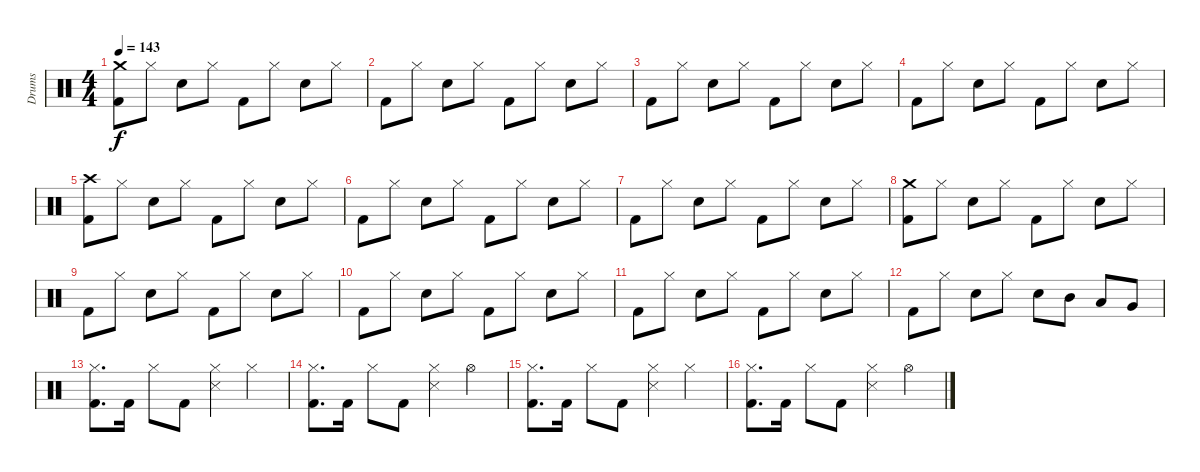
\track ("Drums" "Drums") {instrument percussion}
\staff {score}
\articulation defaults
\ts (4 4)
\tempo 143
\clef neutral
\ks c
("Crash medium (hit)" "Kick (hit) 2").8{dy f} "Hi-Hat (closed)".8 "Snare (hit) 2".8 "Hi-Hat (closed)".8 "Kick (hit) 2".8 "Hi-Hat (closed)".8 "Snare (hit) 2".8 "Hi-Hat (closed)".8 |
"Kick (hit) 2".8 "Hi-Hat (closed)".8 "Snare (hit) 2".8 "Hi-Hat (closed)".8 "Kick (hit) 2".8 "Hi-Hat (closed)".8 "Snare (hit) 2".8 "Hi-Hat (closed)".8 |
"Kick (hit) 2".8 "Hi-Hat (closed)".8 "Snare (hit) 2".8 "Hi-Hat (closed)".8 "Kick (hit) 2".8 "Hi-Hat (closed)".8 "Snare (hit) 2".8 "Hi-Hat (closed)".8 |
"Kick (hit) 2".8 "Hi-Hat (closed)".8 "Snare (hit) 2".8 "Hi-Hat (closed)".8 "Kick (hit) 2".8 "Hi-Hat (closed)".8 "Snare (hit) 2".8 "Hi-Hat (closed)".8 |
("Crash high (hit)" "Kick (hit) 2").8 "Hi-Hat (closed)".8 "Snare (hit) 2".8 "Hi-Hat (closed)".8 "Kick (hit) 2".8 "Hi-Hat (closed)".8 "Snare (hit) 2".8 "Hi-Hat (closed)".8 |
"Kick (hit) 2".8 "Hi-Hat (closed)".8 "Snare (hit) 2".8 "Hi-Hat (closed)".8 "Kick (hit) 2".8 "Hi-Hat (closed)".8 "Snare (hit) 2".8 "Hi-Hat (closed)".8 |
"Kick (hit) 2".8 "Hi-Hat (closed)".8 "Snare (hit) 2".8 "Hi-Hat (closed)".8 "Kick (hit) 2".8 "Hi-Hat (closed)".8 "Snare (hit) 2".8 "Hi-Hat (closed)".8 |
("Crash medium (hit)" "Kick (hit) 2").8 "Hi-Hat (closed)".8 "Snare (hit) 2".8 "Hi-Hat (closed)".8 "Kick (hit) 2".8 "Hi-Hat (closed)".8 "Snare (hit) 2".8 "Hi-Hat (closed)".8 |
"Kick (hit) 2".8 "Hi-Hat (closed)".8 "Snare (hit) 2".8 "Hi-Hat (closed)".8 "Kick (hit) 2".8 "Hi-Hat (closed)".8 "Snare (hit) 2".8 "Hi-Hat (closed)".8 |
"Kick (hit) 2".8 "Hi-Hat (closed)".8 "Snare (hit) 2".8 "Hi-Hat (closed)".8 "Kick (hit) 2".8 "Hi-Hat (closed)".8 "Snare (hit) 2".8 "Hi-Hat (closed)".8 |
"Kick (hit) 2".8 "Hi-Hat (closed)".8 "Snare (hit) 2".8 "Hi-Hat (closed)".8 "Kick (hit) 2".8 "Hi-Hat (closed)".8 "Snare (hit) 2".8 "Hi-Hat (closed)".8 |
"Kick (hit) 2".8 "Hi-Hat (closed)".8 "Snare (hit) 2".8 "Hi-Hat (closed)".8 "Snare (hit) 2".8 "Mid Tom (hit)".8 "Low Tom (hit)".8 "Very Low Tom (hit)".8 |
("Hi-Hat (closed)" "Kick (hit) 2").8{d} "Kick (hit) 2".16 "Hi-Hat (closed)".8 "Kick (hit) 2".8 ("Hi-Hat (closed)" "Snare (side stick) 3").4 "Hi-Hat (closed)".4 |
("Hi-Hat (closed)" "Kick (hit) 2").8{d} "Kick (hit) 2".16 "Hi-Hat (closed)".8 "Kick (hit) 2".8 ("Hi-Hat (closed)" "Snare (side stick) 3").4 "Hi-Hat (open)".4 |
("Hi-Hat (closed)" "Kick (hit) 2").8{d} "Kick (hit) 2".16 "Hi-Hat (closed)".8 "Kick (hit) 2".8 ("Hi-Hat (closed)" "Snare (side stick) 3").4 "Hi-Hat (closed)".4 |
("Hi-Hat (closed)" "Kick (hit) 2").8{d} "Kick (hit) 2".16 "Hi-Hat (closed)".8 "Kick (hit) 2".8 ("Hi-Hat (closed)" "Snare (side stick) 3").4 "Hi-Hat (open)".4
